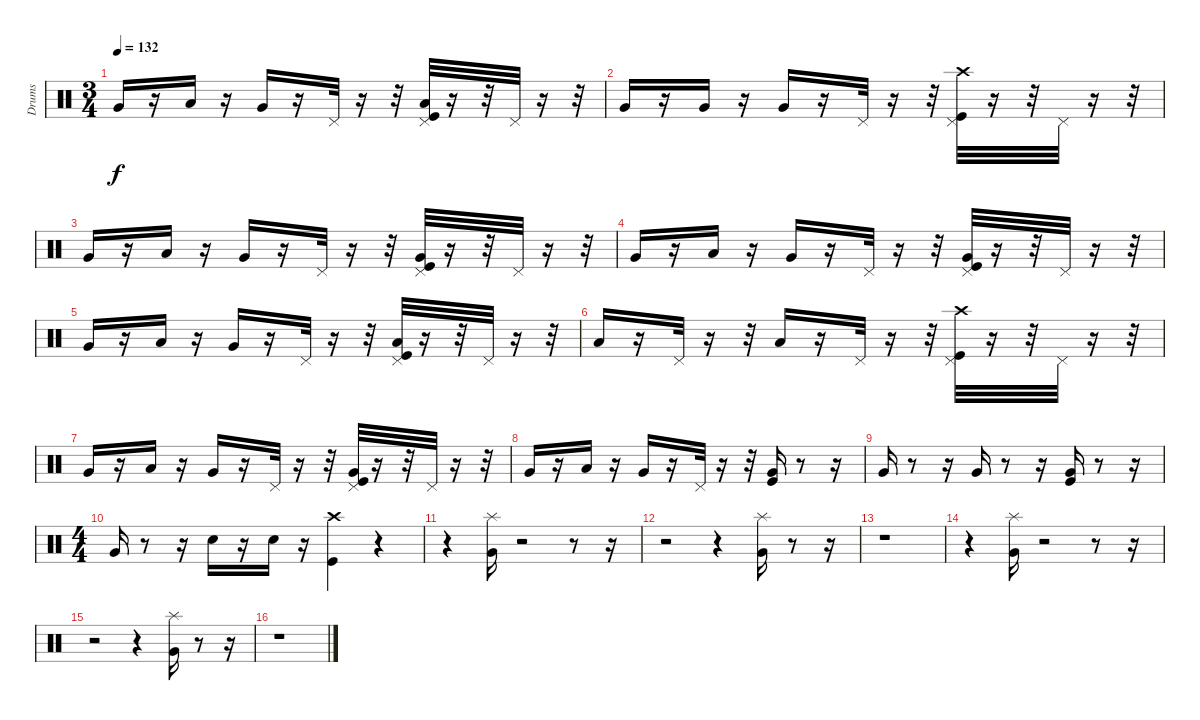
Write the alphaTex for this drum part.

\track ("Drums" "Drums") {instrument percussion}
\staff {score}
\articulation defaults
\ts (3 4)
\tempo 132
\clef neutral
\ks c "Very Low Tom (hit)".16{dy f}
r.16 "Low Tom (hit)".16 r.16 "Very Low Tom (hit)".16 r.16 "Pedal Hi-Hat (hit)".32 r.16 r.32 ("Kick (hit)" "Low Tom (hit)" "Pedal Hi-Hat (hit)").32 r.16 r.32 "Pedal Hi-Hat (hit)".32 r.16 r.32 |
"Very Low Tom (hit)".16 r.16 "Very Low Tom (hit)".16 r.16 "Very Low Tom (hit)".16 r.16 "Pedal Hi-Hat (hit)".32 r.16 r.32 ("Kick (hit)" "Crash high (hit)" "Pedal Hi-Hat (hit)").32 r.16 r.32 "Pedal Hi-Hat (hit)".32 r.16 r.32 |
"Very Low Tom (hit)".16 r.16 "Low Tom (hit)".16 r.16 "Very Low Tom (hit)".16 r.16 "Pedal Hi-Hat (hit)".32 r.16 r.32 ("Kick (hit)" "Pedal Hi-Hat (hit)" "Very Low Tom (hit)").32 r.16 r.32 "Pedal Hi-Hat (hit)".32 r.16 r.32 |
"Very Low Tom (hit)".16 r.16 "Low Tom (hit)".16 r.16 "Very Low Tom (hit)".16 r.16 "Pedal Hi-Hat (hit)".32 r.16 r.32 ("Kick (hit)" "Pedal Hi-Hat (hit)" "Very Low Tom (hit)").32 r.16 r.32 "Pedal Hi-Hat (hit)".32 r.16 r.32 |
"Very Low Tom (hit)".16 r.16 "Low Tom (hit)".16 r.16 "Very Low Tom (hit)".16 r.16 "Pedal Hi-Hat (hit)".32 r.16 r.32 ("Kick (hit)" "Low Tom (hit)" "Pedal Hi-Hat (hit)").32 r.16 r.32 "Pedal Hi-Hat (hit)".32 r.16 r.32 |
"Low Floor Tom (hit)".16 r.16 "Pedal Hi-Hat (hit)".32 r.16 r.32 "Low Floor Tom (hit)".16 r.16 "Pedal Hi-Hat (hit)".32 r.16 r.32 ("Pedal Hi-Hat (hit)" "Kick (hit)" "Crash high (hit)").32 r.16 r.32 "Pedal Hi-Hat (hit)".32 r.16 r.32 |
"Very Low Tom (hit)".16 r.16 "Low Tom (hit)".16 r.16 "Very Low Tom (hit)".16 r.16 "Pedal Hi-Hat (hit)".32 r.16 r.32 ("Pedal Hi-Hat (hit)" "Kick (hit)" "Very Low Tom (hit)").32 r.16 r.32 "Pedal Hi-Hat (hit)".32 r.16 r.32 |
"Very Low Tom (hit)".16 r.16 "Low Tom (hit)".16 r.16 "Very Low Tom (hit)".16 r.16 "Pedal Hi-Hat (hit)".32 r.16 r.32 ("Very Low Tom (hit)" "Kick (hit)").16 r.8 r.16 |
"Very Low Tom (hit)".16 r.8 r.16 "Very Low Tom (hit)".16 r.8 r.16 ("Kick (hit)" "Very Low Tom (hit)").16 r.8 r.16 |
\ts (4 4)
"Very Low Tom (hit)".16 r.8 r.16 "Snare (hit) 2".16 r.16 "Snare (hit) 2".16 r.16 ("Kick (hit)" "Crash high (hit)").4 r.4 |
r.4 ("Splash (hit)" "Very Low Tom (hit)").16 r.2 r.8 r.16 |
r.2 r.4 ("Very Low Tom (hit)" "Splash (hit)").16 r.8 r.16 |
r.1 |
r.4 ("Very Low Tom (hit)" "Splash (hit)").16 r.2 r.8 r.16 |
r.2 r.4 ("Very Low Tom (hit)" "Splash (hit)").16 r.8 r.16 |
r.1
